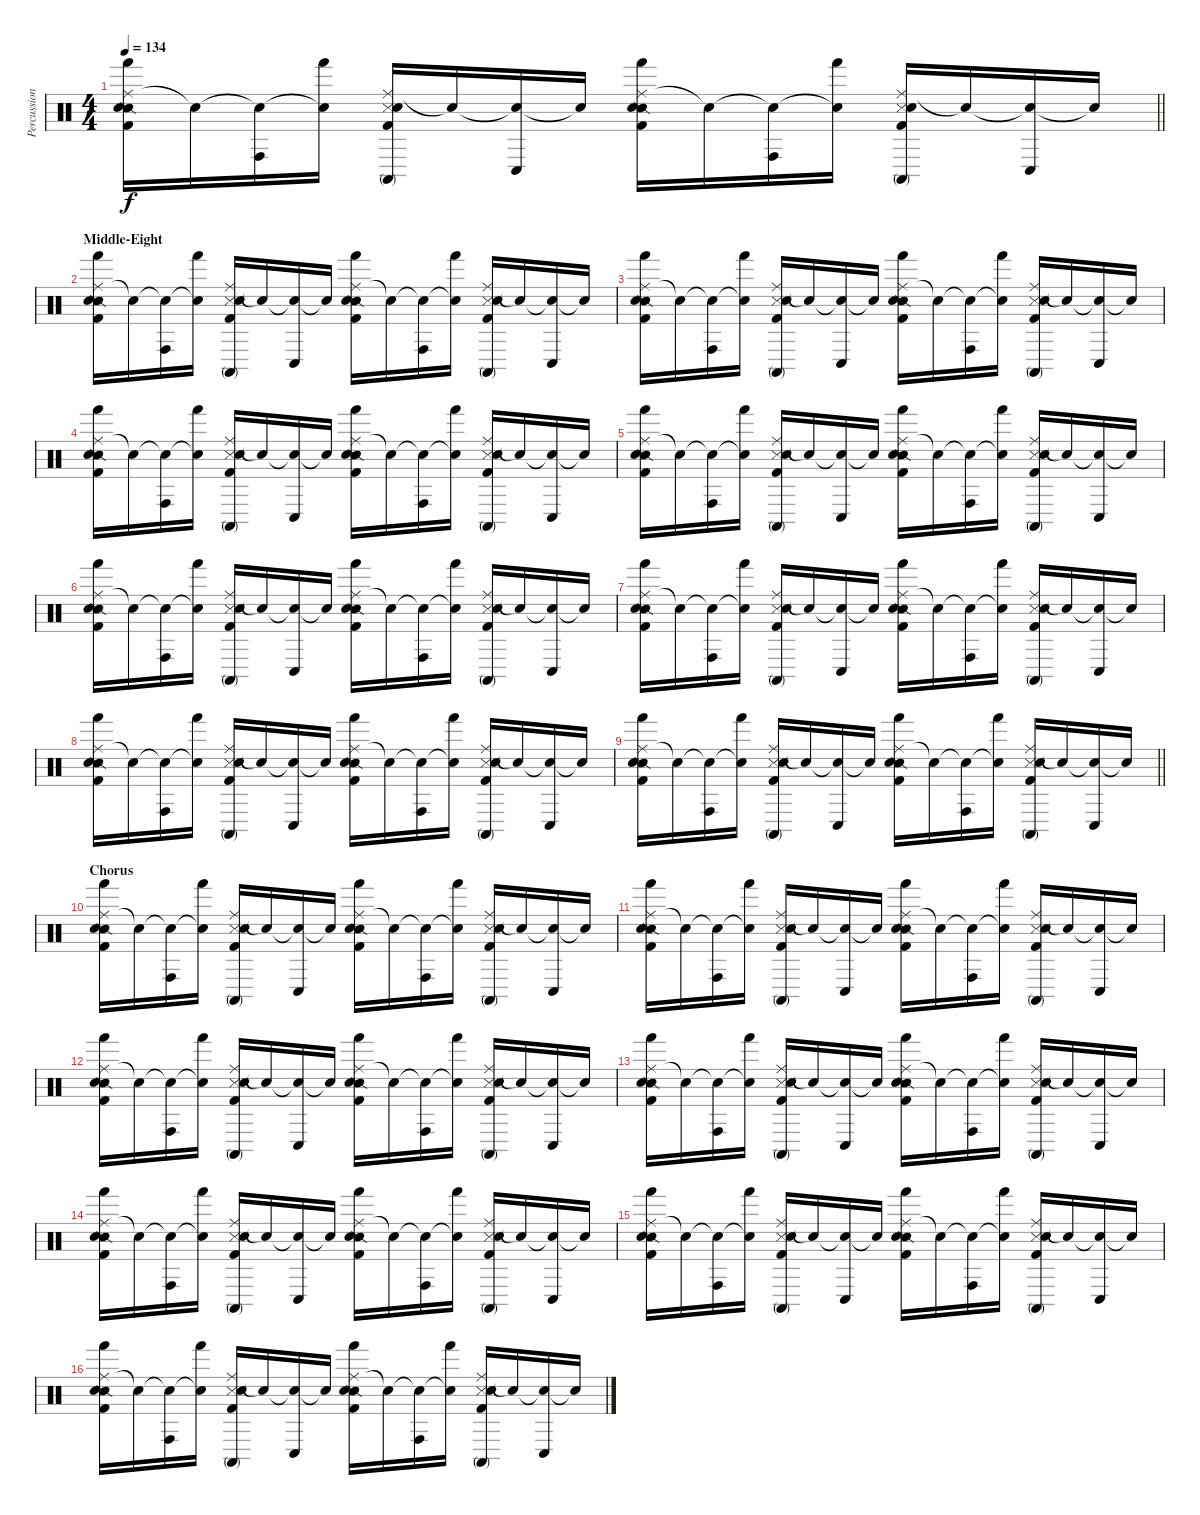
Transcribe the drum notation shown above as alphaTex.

\track ("Percussion" "Percussion") {instrument percussion}
\staff {score}
\articulation defaults
\ts (4 4)
\tempo 134
\clef neutral
\barLineRight lightlight
\ks c
("Ride (middle)" "Hand (hit)" "Snare (side stick) 2" "Electric Snare (hit)" "Kick (hit) 2").16{dy f} "Snare (hit)"{t}.16 ("Snare (hit)"{t} "Conga high (hit)").16 ("Snare (hit)"{t} "Hand (hit)").16 ("Ride (middle)" "Conga high (mute)" "Metronome (hit)" "Electric Snare (hit)" "Kick (hit) 2").16 "Snare (hit)"{t}.16 ("Snare (hit)"{t} "Conga low (hit)").16 "Snare (hit)"{t}.16 ("Ride (middle)" "Hand (hit)" "Snare (side stick) 2" "Electric Snare (hit)" "Kick (hit) 2").16 "Snare (hit)"{t}.16 ("Snare (hit)"{t} "Conga high (hit)").16 ("Snare (hit)"{t} "Hand (hit)").16 ("Ride (middle)" "Conga high (mute)" "Metronome (hit)" "Electric Snare (hit)" "Kick (hit) 2").16 "Snare (hit)"{t}.16 ("Snare (hit)"{t} "Conga low (hit)").16 "Snare (hit)"{t}.16 |
\section ("" "Middle-Eight")
("Ride (middle)" "Hand (hit)" "Snare (side stick) 2" "Electric Snare (hit)" "Kick (hit) 2").16 "Snare (hit)"{t}.16 ("Snare (hit)"{t} "Conga high (hit)").16 ("Snare (hit)"{t} "Hand (hit)").16 ("Ride (middle)" "Conga high (mute)" "Metronome (hit)" "Electric Snare (hit)" "Kick (hit) 2").16 "Snare (hit)"{t}.16 ("Snare (hit)"{t} "Conga low (hit)").16 "Snare (hit)"{t}.16 ("Ride (middle)" "Hand (hit)" "Snare (side stick) 2" "Electric Snare (hit)" "Kick (hit) 2").16 "Snare (hit)"{t}.16 ("Snare (hit)"{t} "Conga high (hit)").16 ("Snare (hit)"{t} "Hand (hit)").16 ("Ride (middle)" "Conga high (mute)" "Metronome (hit)" "Electric Snare (hit)" "Kick (hit) 2").16 "Snare (hit)"{t}.16 ("Snare (hit)"{t} "Conga low (hit)").16 "Snare (hit)"{t}.16 |
("Ride (middle)" "Hand (hit)" "Snare (side stick) 2" "Electric Snare (hit)" "Kick (hit) 2").16 "Snare (hit)"{t}.16 ("Snare (hit)"{t} "Conga high (hit)").16 ("Snare (hit)"{t} "Hand (hit)").16 ("Ride (middle)" "Conga high (mute)" "Metronome (hit)" "Electric Snare (hit)" "Kick (hit) 2").16 "Snare (hit)"{t}.16 ("Snare (hit)"{t} "Conga low (hit)").16 "Snare (hit)"{t}.16 ("Ride (middle)" "Hand (hit)" "Snare (side stick) 2" "Electric Snare (hit)" "Kick (hit) 2").16 "Snare (hit)"{t}.16 ("Snare (hit)"{t} "Conga high (hit)").16 ("Snare (hit)"{t} "Hand (hit)").16 ("Ride (middle)" "Conga high (mute)" "Metronome (hit)" "Electric Snare (hit)" "Kick (hit) 2").16 "Snare (hit)"{t}.16 ("Snare (hit)"{t} "Conga low (hit)").16 "Snare (hit)"{t}.16 |
("Ride (middle)" "Hand (hit)" "Snare (side stick) 2" "Electric Snare (hit)" "Kick (hit) 2").16 "Snare (hit)"{t}.16 ("Snare (hit)"{t} "Conga high (hit)").16 ("Snare (hit)"{t} "Hand (hit)").16 ("Ride (middle)" "Conga high (mute)" "Metronome (hit)" "Electric Snare (hit)" "Kick (hit) 2").16 "Snare (hit)"{t}.16 ("Snare (hit)"{t} "Conga low (hit)").16 "Snare (hit)"{t}.16 ("Ride (middle)" "Hand (hit)" "Snare (side stick) 2" "Electric Snare (hit)" "Kick (hit) 2").16 "Snare (hit)"{t}.16 ("Snare (hit)"{t} "Conga high (hit)").16 ("Snare (hit)"{t} "Hand (hit)").16 ("Ride (middle)" "Conga high (mute)" "Metronome (hit)" "Electric Snare (hit)" "Kick (hit) 2").16 "Snare (hit)"{t}.16 ("Snare (hit)"{t} "Conga low (hit)").16 "Snare (hit)"{t}.16 |
("Ride (middle)" "Hand (hit)" "Snare (side stick) 2" "Electric Snare (hit)" "Kick (hit) 2").16 "Snare (hit)"{t}.16 ("Snare (hit)"{t} "Conga high (hit)").16 ("Snare (hit)"{t} "Hand (hit)").16 ("Ride (middle)" "Conga high (mute)" "Metronome (hit)" "Electric Snare (hit)" "Kick (hit) 2").16 "Snare (hit)"{t}.16 ("Snare (hit)"{t} "Conga low (hit)").16 "Snare (hit)"{t}.16 ("Ride (middle)" "Hand (hit)" "Snare (side stick) 2" "Electric Snare (hit)" "Kick (hit) 2").16 "Snare (hit)"{t}.16 ("Snare (hit)"{t} "Conga high (hit)").16 ("Snare (hit)"{t} "Hand (hit)").16 ("Ride (middle)" "Conga high (mute)" "Metronome (hit)" "Electric Snare (hit)" "Kick (hit) 2").16 "Snare (hit)"{t}.16 ("Snare (hit)"{t} "Conga low (hit)").16 "Snare (hit)"{t}.16 |
("Ride (middle)" "Hand (hit)" "Snare (side stick) 2" "Electric Snare (hit)" "Kick (hit) 2").16 "Snare (hit)"{t}.16 ("Snare (hit)"{t} "Conga high (hit)").16 ("Snare (hit)"{t} "Hand (hit)").16 ("Ride (middle)" "Conga high (mute)" "Metronome (hit)" "Electric Snare (hit)" "Kick (hit) 2").16 "Snare (hit)"{t}.16 ("Snare (hit)"{t} "Conga low (hit)").16 "Snare (hit)"{t}.16 ("Ride (middle)" "Hand (hit)" "Snare (side stick) 2" "Electric Snare (hit)" "Kick (hit) 2").16 "Snare (hit)"{t}.16 ("Snare (hit)"{t} "Conga high (hit)").16 ("Snare (hit)"{t} "Hand (hit)").16 ("Ride (middle)" "Conga high (mute)" "Metronome (hit)" "Electric Snare (hit)" "Kick (hit) 2").16 "Snare (hit)"{t}.16 ("Snare (hit)"{t} "Conga low (hit)").16 "Snare (hit)"{t}.16 |
("Ride (middle)" "Hand (hit)" "Snare (side stick) 2" "Electric Snare (hit)" "Kick (hit) 2").16 "Snare (hit)"{t}.16 ("Snare (hit)"{t} "Conga high (hit)").16 ("Snare (hit)"{t} "Hand (hit)").16 ("Ride (middle)" "Conga high (mute)" "Metronome (hit)" "Electric Snare (hit)" "Kick (hit) 2").16 "Snare (hit)"{t}.16 ("Snare (hit)"{t} "Conga low (hit)").16 "Snare (hit)"{t}.16 ("Ride (middle)" "Hand (hit)" "Snare (side stick) 2" "Electric Snare (hit)" "Kick (hit) 2").16 "Snare (hit)"{t}.16 ("Snare (hit)"{t} "Conga high (hit)").16 ("Snare (hit)"{t} "Hand (hit)").16 ("Ride (middle)" "Conga high (mute)" "Metronome (hit)" "Electric Snare (hit)" "Kick (hit) 2").16 "Snare (hit)"{t}.16 ("Snare (hit)"{t} "Conga low (hit)").16 "Snare (hit)"{t}.16 |
("Ride (middle)" "Hand (hit)" "Snare (side stick) 2" "Electric Snare (hit)" "Kick (hit) 2").16 "Snare (hit)"{t}.16 ("Snare (hit)"{t} "Conga high (hit)").16 ("Snare (hit)"{t} "Hand (hit)").16 ("Ride (middle)" "Conga high (mute)" "Metronome (hit)" "Electric Snare (hit)" "Kick (hit) 2").16 "Snare (hit)"{t}.16 ("Snare (hit)"{t} "Conga low (hit)").16 "Snare (hit)"{t}.16 ("Ride (middle)" "Hand (hit)" "Snare (side stick) 2" "Electric Snare (hit)" "Kick (hit) 2").16 "Snare (hit)"{t}.16 ("Snare (hit)"{t} "Conga high (hit)").16 ("Snare (hit)"{t} "Hand (hit)").16 ("Ride (middle)" "Conga high (mute)" "Metronome (hit)" "Electric Snare (hit)" "Kick (hit) 2").16 "Snare (hit)"{t}.16 ("Snare (hit)"{t} "Conga low (hit)").16 "Snare (hit)"{t}.16 |
\barLineRight lightlight
("Ride (middle)" "Hand (hit)" "Snare (side stick) 2" "Electric Snare (hit)" "Kick (hit) 2").16 "Snare (hit)"{t}.16 ("Snare (hit)"{t} "Conga high (hit)").16 ("Snare (hit)"{t} "Hand (hit)").16 ("Ride (middle)" "Conga high (mute)" "Metronome (hit)" "Electric Snare (hit)" "Kick (hit) 2").16 "Snare (hit)"{t}.16 ("Snare (hit)"{t} "Conga low (hit)").16 "Snare (hit)"{t}.16 ("Ride (middle)" "Hand (hit)" "Snare (side stick) 2" "Electric Snare (hit)" "Kick (hit) 2").16 "Snare (hit)"{t}.16 ("Snare (hit)"{t} "Conga high (hit)").16 ("Snare (hit)"{t} "Hand (hit)").16 ("Ride (middle)" "Conga high (mute)" "Metronome (hit)" "Electric Snare (hit)" "Kick (hit) 2").16 "Snare (hit)"{t}.16 ("Snare (hit)"{t} "Conga low (hit)").16 "Snare (hit)"{t}.16 |
\section ("" "Chorus")
("Ride (middle)" "Hand (hit)" "Snare (side stick) 2" "Electric Snare (hit)" "Kick (hit) 2").16 "Snare (hit)"{t}.16 ("Snare (hit)"{t} "Conga high (hit)").16 ("Snare (hit)"{t} "Hand (hit)").16 ("Ride (middle)" "Conga high (mute)" "Metronome (hit)" "Electric Snare (hit)" "Kick (hit) 2").16 "Snare (hit)"{t}.16 ("Snare (hit)"{t} "Conga low (hit)").16 "Snare (hit)"{t}.16 ("Ride (middle)" "Hand (hit)" "Snare (side stick) 2" "Electric Snare (hit)" "Kick (hit) 2").16 "Snare (hit)"{t}.16 ("Snare (hit)"{t} "Conga high (hit)").16 ("Snare (hit)"{t} "Hand (hit)").16 ("Ride (middle)" "Conga high (mute)" "Metronome (hit)" "Electric Snare (hit)" "Kick (hit) 2").16 "Snare (hit)"{t}.16 ("Snare (hit)"{t} "Conga low (hit)").16 "Snare (hit)"{t}.16 |
("Ride (middle)" "Hand (hit)" "Snare (side stick) 2" "Electric Snare (hit)" "Kick (hit) 2").16 "Snare (hit)"{t}.16 ("Snare (hit)"{t} "Conga high (hit)").16 ("Snare (hit)"{t} "Hand (hit)").16 ("Ride (middle)" "Conga high (mute)" "Metronome (hit)" "Electric Snare (hit)" "Kick (hit) 2").16 "Snare (hit)"{t}.16 ("Snare (hit)"{t} "Conga low (hit)").16 "Snare (hit)"{t}.16 ("Ride (middle)" "Hand (hit)" "Snare (side stick) 2" "Electric Snare (hit)" "Kick (hit) 2").16 "Snare (hit)"{t}.16 ("Snare (hit)"{t} "Conga high (hit)").16 ("Snare (hit)"{t} "Hand (hit)").16 ("Ride (middle)" "Conga high (mute)" "Metronome (hit)" "Electric Snare (hit)" "Kick (hit) 2").16 "Snare (hit)"{t}.16 ("Snare (hit)"{t} "Conga low (hit)").16 "Snare (hit)"{t}.16 |
("Ride (middle)" "Hand (hit)" "Snare (side stick) 2" "Electric Snare (hit)" "Kick (hit) 2").16 "Snare (hit)"{t}.16 ("Snare (hit)"{t} "Conga high (hit)").16 ("Snare (hit)"{t} "Hand (hit)").16 ("Ride (middle)" "Conga high (mute)" "Metronome (hit)" "Electric Snare (hit)" "Kick (hit) 2").16 "Snare (hit)"{t}.16 ("Snare (hit)"{t} "Conga low (hit)").16 "Snare (hit)"{t}.16 ("Ride (middle)" "Hand (hit)" "Snare (side stick) 2" "Electric Snare (hit)" "Kick (hit) 2").16 "Snare (hit)"{t}.16 ("Snare (hit)"{t} "Conga high (hit)").16 ("Snare (hit)"{t} "Hand (hit)").16 ("Ride (middle)" "Conga high (mute)" "Metronome (hit)" "Electric Snare (hit)" "Kick (hit) 2").16 "Snare (hit)"{t}.16 ("Snare (hit)"{t} "Conga low (hit)").16 "Snare (hit)"{t}.16 |
("Ride (middle)" "Hand (hit)" "Snare (side stick) 2" "Electric Snare (hit)" "Kick (hit) 2").16 "Snare (hit)"{t}.16 ("Snare (hit)"{t} "Conga high (hit)").16 ("Snare (hit)"{t} "Hand (hit)").16 ("Ride (middle)" "Conga high (mute)" "Metronome (hit)" "Electric Snare (hit)" "Kick (hit) 2").16 "Snare (hit)"{t}.16 ("Snare (hit)"{t} "Conga low (hit)").16 "Snare (hit)"{t}.16 ("Ride (middle)" "Hand (hit)" "Snare (side stick) 2" "Electric Snare (hit)" "Kick (hit) 2").16 "Snare (hit)"{t}.16 ("Snare (hit)"{t} "Conga high (hit)").16 ("Snare (hit)"{t} "Hand (hit)").16 ("Ride (middle)" "Conga high (mute)" "Metronome (hit)" "Electric Snare (hit)" "Kick (hit) 2").16 "Snare (hit)"{t}.16 ("Snare (hit)"{t} "Conga low (hit)").16 "Snare (hit)"{t}.16 |
("Ride (middle)" "Hand (hit)" "Snare (side stick) 2" "Electric Snare (hit)" "Kick (hit) 2").16 "Snare (hit)"{t}.16 ("Snare (hit)"{t} "Conga high (hit)").16 ("Snare (hit)"{t} "Hand (hit)").16 ("Ride (middle)" "Conga high (mute)" "Metronome (hit)" "Electric Snare (hit)" "Kick (hit) 2").16 "Snare (hit)"{t}.16 ("Snare (hit)"{t} "Conga low (hit)").16 "Snare (hit)"{t}.16 ("Ride (middle)" "Hand (hit)" "Snare (side stick) 2" "Electric Snare (hit)" "Kick (hit) 2").16 "Snare (hit)"{t}.16 ("Snare (hit)"{t} "Conga high (hit)").16 ("Snare (hit)"{t} "Hand (hit)").16 ("Ride (middle)" "Conga high (mute)" "Metronome (hit)" "Electric Snare (hit)" "Kick (hit) 2").16 "Snare (hit)"{t}.16 ("Snare (hit)"{t} "Conga low (hit)").16 "Snare (hit)"{t}.16 |
("Ride (middle)" "Hand (hit)" "Snare (side stick) 2" "Electric Snare (hit)" "Kick (hit) 2").16 "Snare (hit)"{t}.16 ("Snare (hit)"{t} "Conga high (hit)").16 ("Snare (hit)"{t} "Hand (hit)").16 ("Ride (middle)" "Conga high (mute)" "Metronome (hit)" "Electric Snare (hit)" "Kick (hit) 2").16 "Snare (hit)"{t}.16 ("Snare (hit)"{t} "Conga low (hit)").16 "Snare (hit)"{t}.16 ("Ride (middle)" "Hand (hit)" "Snare (side stick) 2" "Electric Snare (hit)" "Kick (hit) 2").16 "Snare (hit)"{t}.16 ("Snare (hit)"{t} "Conga high (hit)").16 ("Snare (hit)"{t} "Hand (hit)").16 ("Ride (middle)" "Conga high (mute)" "Metronome (hit)" "Electric Snare (hit)" "Kick (hit) 2").16 "Snare (hit)"{t}.16 ("Snare (hit)"{t} "Conga low (hit)").16 "Snare (hit)"{t}.16 |
("Ride (middle)" "Hand (hit)" "Snare (side stick) 2" "Electric Snare (hit)" "Kick (hit) 2").16 "Snare (hit)"{t}.16 ("Snare (hit)"{t} "Conga high (hit)").16 ("Snare (hit)"{t} "Hand (hit)").16 ("Ride (middle)" "Conga high (mute)" "Metronome (hit)" "Electric Snare (hit)" "Kick (hit) 2").16 "Snare (hit)"{t}.16 ("Snare (hit)"{t} "Conga low (hit)").16 "Snare (hit)"{t}.16 ("Ride (middle)" "Hand (hit)" "Snare (side stick) 2" "Electric Snare (hit)" "Kick (hit) 2").16 "Snare (hit)"{t}.16 ("Snare (hit)"{t} "Conga high (hit)").16 ("Snare (hit)"{t} "Hand (hit)").16 ("Ride (middle)" "Conga high (mute)" "Metronome (hit)" "Electric Snare (hit)" "Kick (hit) 2").16 "Snare (hit)"{t}.16 ("Snare (hit)"{t} "Conga low (hit)").16 "Snare (hit)"{t}.16
